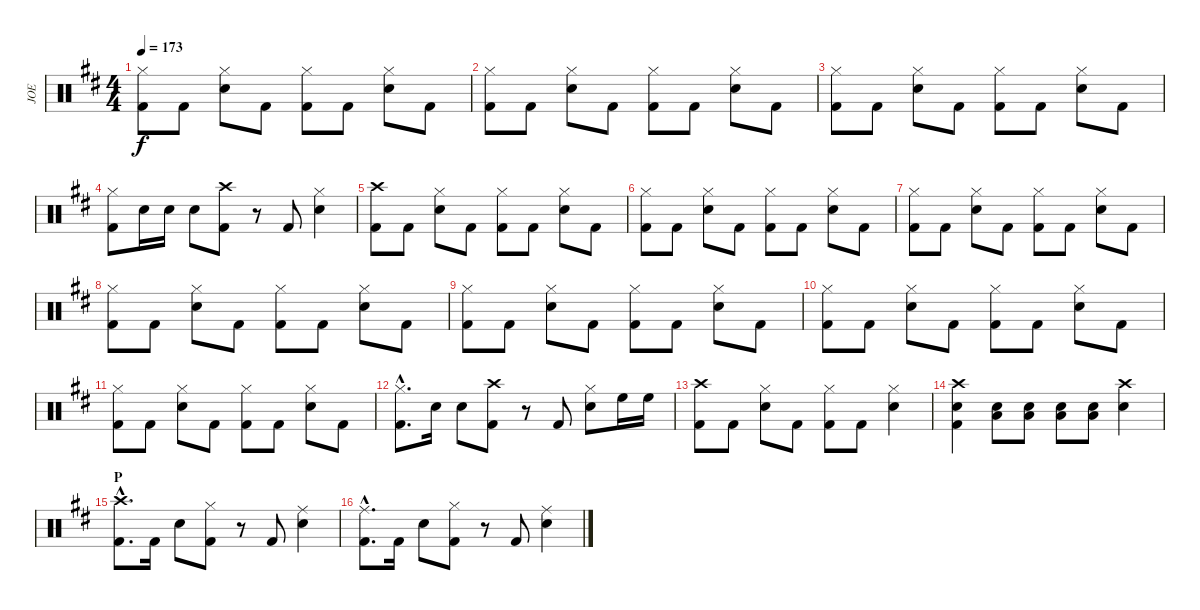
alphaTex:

\track ("JOE" "JOE") {instrument percussion}
\staff {score}
\articulation defaults
\ts (4 4)
\tempo 173
\clef neutral
\ks bminor
("Hi-Hat (closed)" "Kick (hit) 2").8{dy f} "Kick (hit) 2".8 ("Hi-Hat (closed)" "Snare (hit) 2").8 "Kick (hit) 2".8 ("Hi-Hat (closed)" "Kick (hit) 2").8 "Kick (hit) 2".8 ("Hi-Hat (closed)" "Snare (hit) 2").8 "Kick (hit) 2".8 |
("Hi-Hat (closed)" "Kick (hit) 2").8 "Kick (hit) 2".8 ("Hi-Hat (closed)" "Snare (hit) 2").8 "Kick (hit) 2".8 ("Hi-Hat (closed)" "Kick (hit) 2").8 "Kick (hit) 2".8 ("Hi-Hat (closed)" "Snare (hit) 2").8 "Kick (hit) 2".8 |
("Hi-Hat (closed)" "Kick (hit) 2").8 "Kick (hit) 2".8 ("Hi-Hat (closed)" "Snare (hit) 2").8 "Kick (hit) 2".8 ("Hi-Hat (closed)" "Kick (hit) 2").8 "Kick (hit) 2".8 ("Hi-Hat (closed)" "Snare (hit) 2").8 "Kick (hit) 2".8 |
("Hi-Hat (closed)" "Kick (hit) 2").8 "Snare (hit) 2".16 "Snare (hit) 2".16 "Snare (hit) 2".8 ("Crash high (hit)" "Kick (hit) 2").8 r.8 "Kick (hit) 2".8 ("Hi-Hat (closed)" "Snare (hit) 2").4 |
("Crash high (hit)" "Kick (hit) 2").8 "Kick (hit) 2".8 ("Hi-Hat (closed)" "Snare (hit) 2").8 "Kick (hit) 2".8 ("Hi-Hat (closed)" "Kick (hit) 2").8 "Kick (hit) 2".8 ("Hi-Hat (closed)" "Snare (hit) 2").8 "Kick (hit) 2".8 |
("Hi-Hat (closed)" "Kick (hit) 2").8 "Kick (hit) 2".8 ("Hi-Hat (closed)" "Snare (hit) 2").8 "Kick (hit) 2".8 ("Hi-Hat (closed)" "Kick (hit) 2").8 "Kick (hit) 2".8 ("Hi-Hat (closed)" "Snare (hit) 2").8 "Kick (hit) 2".8 |
("Hi-Hat (closed)" "Kick (hit) 2").8 "Kick (hit) 2".8 ("Hi-Hat (closed)" "Snare (hit) 2").8 "Kick (hit) 2".8 ("Hi-Hat (closed)" "Kick (hit) 2").8 "Kick (hit) 2".8 ("Hi-Hat (closed)" "Snare (hit) 2").8 "Kick (hit) 2".8 |
("Hi-Hat (closed)" "Kick (hit) 2").8 "Kick (hit) 2".8 ("Hi-Hat (closed)" "Snare (hit) 2").8 "Kick (hit) 2".8 ("Hi-Hat (closed)" "Kick (hit) 2").8 "Kick (hit) 2".8 ("Hi-Hat (closed)" "Snare (hit) 2").8 "Kick (hit) 2".8 |
("Hi-Hat (closed)" "Kick (hit) 2").8 "Kick (hit) 2".8 ("Hi-Hat (closed)" "Snare (hit) 2").8 "Kick (hit) 2".8 ("Hi-Hat (closed)" "Kick (hit) 2").8 "Kick (hit) 2".8 ("Hi-Hat (closed)" "Snare (hit) 2").8 "Kick (hit) 2".8 |
("Hi-Hat (closed)" "Kick (hit) 2").8 "Kick (hit) 2".8 ("Hi-Hat (closed)" "Snare (hit) 2").8 "Kick (hit) 2".8 ("Hi-Hat (closed)" "Kick (hit) 2").8 "Kick (hit) 2".8 ("Hi-Hat (closed)" "Snare (hit) 2").8 "Kick (hit) 2".8 |
("Hi-Hat (closed)" "Kick (hit) 2").8 "Kick (hit) 2".8 ("Hi-Hat (closed)" "Snare (hit) 2").8 "Kick (hit) 2".8 ("Hi-Hat (closed)" "Kick (hit) 2").8 "Kick (hit) 2".8 ("Hi-Hat (closed)" "Snare (hit) 2").8 "Kick (hit) 2".8 |
("Hi-Hat (closed)"{hac} "Kick (hit) 2"{hac}).8{d} "Snare (hit) 2".16 "Snare (hit) 2".8 ("Crash high (hit)" "Kick (hit) 2").8 r.8 "Kick (hit) 2".8 ("Hi-Hat (closed)" "Snare (hit) 2").8 "High Floor Tom (hit)".16 "High Floor Tom (hit)".16 |
("Crash high (hit)" "Kick (hit) 2").8 "Kick (hit) 2".8 ("Hi-Hat (closed)" "Snare (hit) 2").8 "Kick (hit) 2".8 ("Hi-Hat (closed)" "Kick (hit) 2").8 "Kick (hit) 2".8 ("Hi-Hat (closed)" "Snare (hit) 2").4 |
("Crash high (hit)" "Snare (hit) 2" "Kick (hit) 2").4 ("Snare (hit) 2" "Low Floor Tom (hit)").8 ("Snare (hit) 2" "Low Floor Tom (hit)").8 ("Snare (hit) 2" "Low Floor Tom (hit)").8 ("Snare (hit) 2" "Low Floor Tom (hit)").8 ("Crash high (hit)" "Snare (hit) 2").4 |
\section ("" "P")
("Crash high (hit)"{hac} "Kick (hit) 2"{hac}).8{d} "Kick (hit) 2".16 "Snare (hit) 2".8 ("Hi-Hat (closed)" "Kick (hit) 2").8 r.8 "Kick (hit) 2".8 ("Ride (middle)" "Snare (hit) 2").4 |
("Ride (middle)"{hac} "Kick (hit) 2"{hac}).8{d} "Kick (hit) 2".16 "Snare (hit) 2".8 ("Hi-Hat (closed)" "Kick (hit) 2").8 r.8 "Kick (hit) 2".8 ("Ride (middle)" "Snare (hit) 2").4
